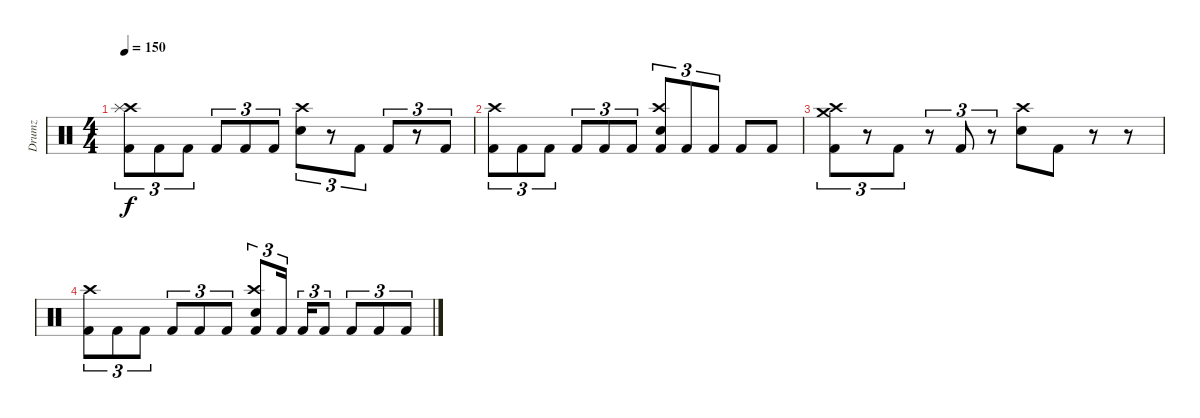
\track ("Drumz" "Drumz") {instrument percussion}
\staff {score}
\articulation defaults
\ts (4 4)
\tempo 150
\clef neutral
\ks c
("Kick (hit) 2" "Crash high (hit)" "Splash (hit)").8{tu (3 2) dy f} "Kick (hit) 2".8{tu (3 2)} "Kick (hit) 2".8{tu (3 2)} "Kick (hit) 2".8{tu (3 2)} "Kick (hit) 2".8{tu (3 2)} "Kick (hit) 2".8{tu (3 2)} ("Crash high (hit)" "Snare (hit) 2").8{tu (3 2)} r.8{tu (3 2)} "Kick (hit) 2".8{tu (3 2)} "Kick (hit) 2".8{tu (3 2)} r.8{tu (3 2)} "Kick (hit) 2".8{tu (3 2)} |
("Kick (hit) 2" "Crash high (hit)").8{tu (3 2)} "Kick (hit) 2".8{tu (3 2)} "Kick (hit) 2".8{tu (3 2)} "Kick (hit) 2".8{tu (3 2)} "Kick (hit) 2".8{tu (3 2)} "Kick (hit) 2".8{tu (3 2)} ("Crash high (hit)" "Snare (hit) 2" "Kick (hit) 2").8{tu (3 2)} "Kick (hit) 2".8{tu (3 2)} "Kick (hit) 2".8{tu (3 2)} "Kick (hit) 2".8 "Kick (hit) 2".8 |
("Crash high (hit)" "Kick (hit) 2" "Crash medium (hit)").8{tu (3 2)} r.8{tu (3 2)} "Kick (hit) 2".8{tu (3 2)} r.8{tu (3 2)} "Kick (hit) 2".8{tu (3 2)} r.8{tu (3 2)} ("Crash high (hit)" "Snare (hit) 2").8 "Kick (hit) 2".8 r.8 r.8 |
("Kick (hit) 2" "Crash high (hit)").8{tu (3 2)} "Kick (hit) 2".8{tu (3 2)} "Kick (hit) 2".8{tu (3 2)} "Kick (hit) 2".8{tu (3 2)} "Kick (hit) 2".8{tu (3 2)} "Kick (hit) 2".8{tu (3 2)} ("Crash high (hit)" "Snare (hit) 2" "Kick (hit) 2").8{tu (3 2)} "Kick (hit) 2".16{tu (3 2) beam splitsecondary} "Kick (hit) 2".16{tu (3 2)} "Kick (hit) 2".8{tu (3 2)} "Kick (hit) 2".8{tu (3 2)} "Kick (hit) 2".8{tu (3 2)} "Kick (hit) 2".8{tu (3 2)}
